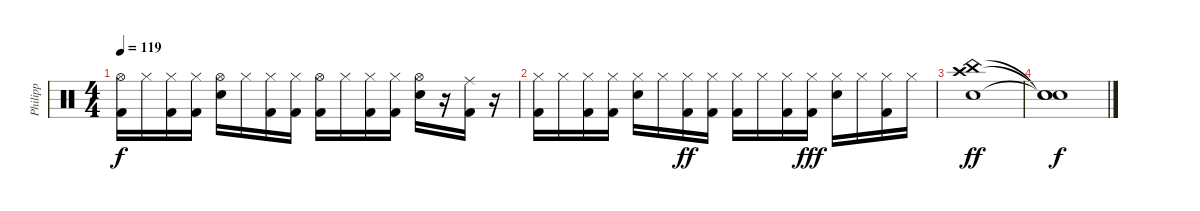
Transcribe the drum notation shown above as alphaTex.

\track ("Philipp" "Philipp") {instrument percussion}
\staff {score}
\articulation defaults
\ts (4 4)
\tempo 119
\clef neutral
\ks c
("Hi-Hat (open)" "Kick (hit) 2").16{dy f} "Hi-Hat (closed)".16 ("Hi-Hat (closed)" "Kick (hit) 2").16 ("Hi-Hat (closed)" "Kick (hit) 2").16 ("Hi-Hat (open)" "Electric Snare (hit)").16 "Hi-Hat (closed)".16 ("Hi-Hat (closed)" "Kick (hit) 2").16 ("Hi-Hat (closed)" "Kick (hit) 2").16 ("Hi-Hat (open)" "Kick (hit) 2").16 "Hi-Hat (closed)".16 ("Hi-Hat (closed)" "Kick (hit) 2").16 ("Hi-Hat (closed)" "Kick (hit) 2").16 ("Hi-Hat (open)" "Electric Snare (hit)").16 r.16 ("Ride (middle)" "Kick (hit) 2").16 r.16 |
("Hi-Hat (closed)" "Kick (hit) 2").16 "Hi-Hat (closed)".16 ("Hi-Hat (closed)" "Kick (hit) 2").16 ("Hi-Hat (closed)" "Kick (hit) 2").16 ("Hi-Hat (closed)" "Electric Snare (hit)").16 "Hi-Hat (closed)".16 ("Hi-Hat (closed)" "Kick (hit) 2").16{dy ff} ("Hi-Hat (closed)" "Kick (hit) 2").16 ("Hi-Hat (closed)" "Kick (hit) 2").16 "Hi-Hat (closed)".16 ("Hi-Hat (closed)" "Kick (hit) 2").16 ("Hi-Hat (closed)" "Kick (hit) 2").16{dy fff} ("Hi-Hat (closed)" "Electric Snare (hit)").16 "Hi-Hat (closed)".16 ("Hi-Hat (closed)" "Kick (hit) 2").16 "Hi-Hat (closed)".16 |
("China (hit)" "Crash high (hit)" "Electric Snare (hit)").1{dy ff volume 16} |
("Snare (hit)"{t} "Snare (hit)"{t} "Snare (hit)"{t}).1{dy f volume 0}
